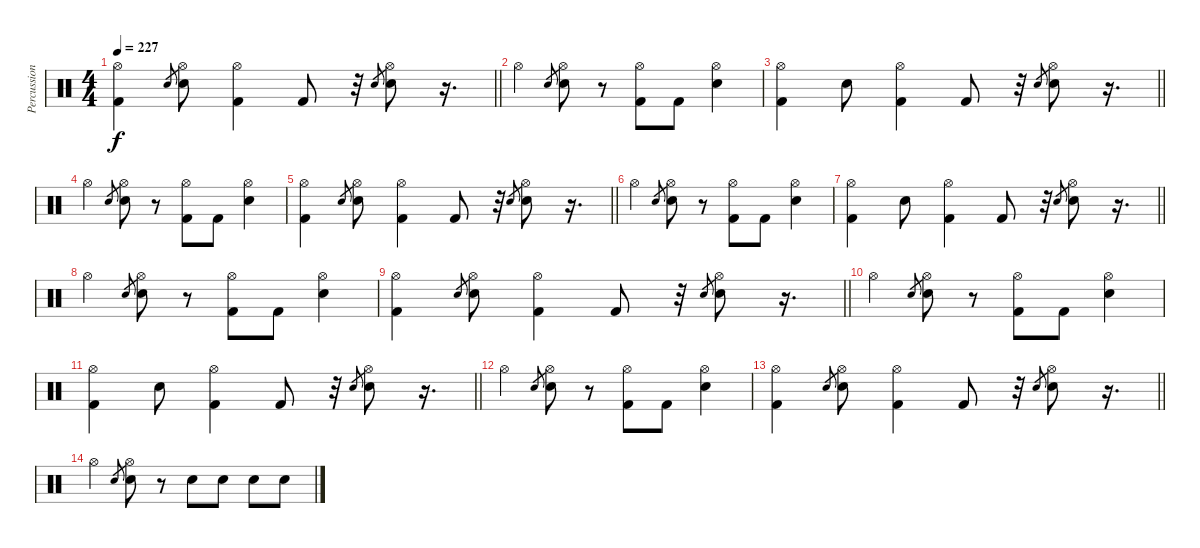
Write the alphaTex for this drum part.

\track ("Percussion" "Percussion") {instrument percussion}
\staff {score}
\articulation defaults
\ts (4 4)
\tempo 227
\clef neutral
\barLineRight lightlight
\ks c
("Hi-Hat (open)" "Kick (hit) 2").4{dy f} "Snare (hit) 2".8{gr} ("Hi-Hat (open)" "Snare (hit) 2").8 ("Hi-Hat (open)" "Kick (hit) 2").4 "Kick (hit) 2".8 r.32 "Snare (hit) 2".8{gr} ("Hi-Hat (open)" "Snare (hit) 2").8 r.16{d} |
"Hi-Hat (open)".4 "Snare (hit) 2".8{gr} ("Hi-Hat (open)" "Snare (hit) 2").8 r.8 ("Hi-Hat (open)" "Kick (hit) 2").8 "Kick (hit) 2".8 ("Hi-Hat (open)" "Snare (hit) 2").4 |
\barLineRight lightlight
("Hi-Hat (open)" "Kick (hit) 2").4 "Snare (hit) 2".8 ("Hi-Hat (open)" "Kick (hit) 2").4 "Kick (hit) 2".8 r.32 "Snare (hit) 2".8{gr} ("Hi-Hat (open)" "Snare (hit) 2").8 r.16{d} |
"Hi-Hat (open)".4 "Snare (hit) 2".8{gr} ("Hi-Hat (open)" "Snare (hit) 2").8 r.8 ("Hi-Hat (open)" "Kick (hit) 2").8 "Kick (hit) 2".8 ("Hi-Hat (open)" "Snare (hit) 2").4 |
\barLineRight lightlight
("Hi-Hat (open)" "Kick (hit) 2").4 "Snare (hit) 2".8{gr} ("Hi-Hat (open)" "Snare (hit) 2").8 ("Hi-Hat (open)" "Kick (hit) 2").4 "Kick (hit) 2".8 r.32 "Snare (hit) 2".8{gr} ("Hi-Hat (open)" "Snare (hit) 2").8 r.16{d} |
"Hi-Hat (open)".4 "Snare (hit) 2".8{gr} ("Hi-Hat (open)" "Snare (hit) 2").8 r.8 ("Hi-Hat (open)" "Kick (hit) 2").8 "Kick (hit) 2".8 ("Hi-Hat (open)" "Snare (hit) 2").4 |
\barLineRight lightlight
("Hi-Hat (open)" "Kick (hit) 2").4 "Snare (hit) 2".8 ("Hi-Hat (open)" "Kick (hit) 2").4 "Kick (hit) 2".8 r.32 "Snare (hit) 2".8{gr} ("Hi-Hat (open)" "Snare (hit) 2").8 r.16{d} |
"Hi-Hat (open)".4 "Snare (hit) 2".8{gr} ("Hi-Hat (open)" "Snare (hit) 2").8 r.8 ("Hi-Hat (open)" "Kick (hit) 2").8 "Kick (hit) 2".8 ("Hi-Hat (open)" "Snare (hit) 2").4 |
\barLineRight lightlight
("Hi-Hat (open)" "Kick (hit) 2").4 "Snare (hit) 2".8{gr} ("Hi-Hat (open)" "Snare (hit) 2").8 ("Hi-Hat (open)" "Kick (hit) 2").4 "Kick (hit) 2".8 r.32 "Snare (hit) 2".8{gr} ("Hi-Hat (open)" "Snare (hit) 2").8 r.16{d} |
"Hi-Hat (open)".4 "Snare (hit) 2".8{gr} ("Hi-Hat (open)" "Snare (hit) 2").8 r.8 ("Hi-Hat (open)" "Kick (hit) 2").8 "Kick (hit) 2".8 ("Hi-Hat (open)" "Snare (hit) 2").4 |
\barLineRight lightlight
("Hi-Hat (open)" "Kick (hit) 2").4 "Snare (hit) 2".8 ("Hi-Hat (open)" "Kick (hit) 2").4 "Kick (hit) 2".8 r.32 "Snare (hit) 2".8{gr} ("Hi-Hat (open)" "Snare (hit) 2").8 r.16{d} |
"Hi-Hat (open)".4 "Snare (hit) 2".8{gr} ("Hi-Hat (open)" "Snare (hit) 2").8 r.8 ("Hi-Hat (open)" "Kick (hit) 2").8 "Kick (hit) 2".8 ("Hi-Hat (open)" "Snare (hit) 2").4 |
\barLineRight lightlight
("Hi-Hat (open)" "Kick (hit) 2").4 "Snare (hit) 2".8{gr} ("Hi-Hat (open)" "Snare (hit) 2").8 ("Hi-Hat (open)" "Kick (hit) 2").4 "Kick (hit) 2".8 r.32 "Snare (hit) 2".8{gr} ("Hi-Hat (open)" "Snare (hit) 2").8 r.16{d} |
"Hi-Hat (open)".4 "Snare (hit) 2".8{gr} ("Hi-Hat (open)" "Snare (hit) 2").8 r.8 "Snare (hit) 2".8 "Snare (hit) 2".8 "Snare (hit) 2".8 "Snare (hit) 2".8
